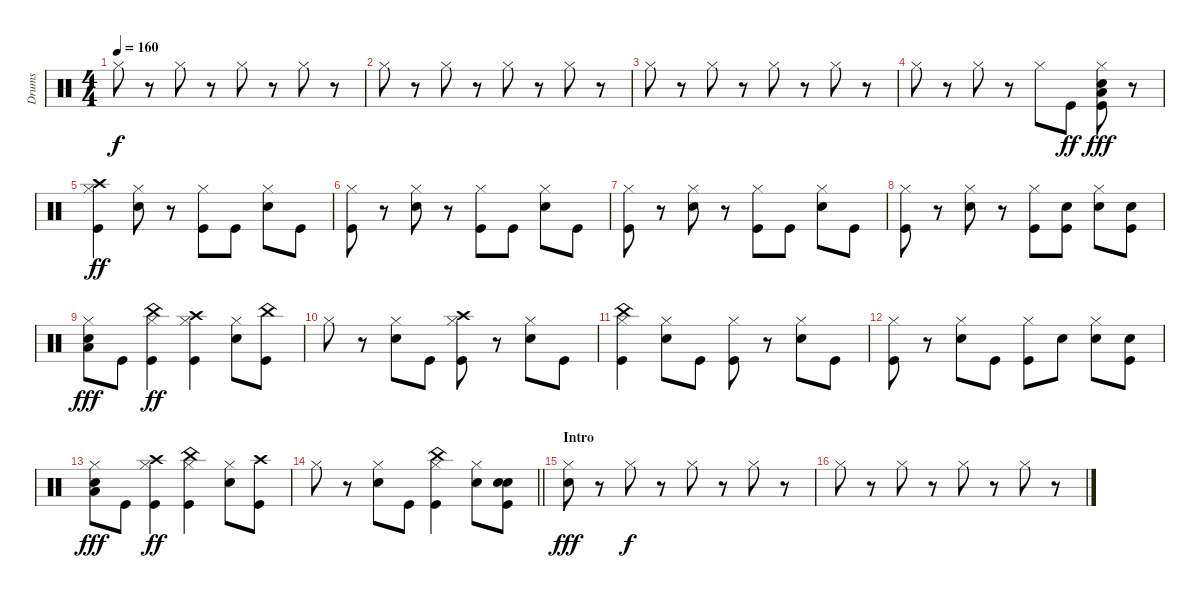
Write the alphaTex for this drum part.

\track ("Drums" "Drums") {instrument percussion}
\staff {score}
\articulation defaults
\ts (4 4)
\tempo 160
\clef neutral
\ks c "Hi-Hat (closed)".8{dy f}
r.8 "Hi-Hat (closed)".8 r.8 "Hi-Hat (closed)".8 r.8 "Hi-Hat (closed)".8 r.8 |
"Hi-Hat (closed)".8 r.8 "Hi-Hat (closed)".8 r.8 "Hi-Hat (closed)".8 r.8 "Hi-Hat (closed)".8 r.8 |
"Hi-Hat (closed)".8 r.8 "Hi-Hat (closed)".8 r.8 "Hi-Hat (closed)".8 r.8 "Hi-Hat (closed)".8 r.8 |
"Hi-Hat (closed)".8 r.8 "Hi-Hat (closed)".8 r.8 "Hi-Hat (closed)".8 "Kick (hit)".8{dy ff} ("Kick (hit)" "Snare (hit) 2" "Low Floor Tom (hit)" "Hi-Hat (closed)").8{dy fff} r.8 |
("Crash high (hit)" "Hi-Hat (closed)" "Kick (hit)").4{dy ff} ("Hi-Hat (closed)" "Snare (hit) 2").8 r.8 ("Hi-Hat (closed)" "Kick (hit)").8 "Kick (hit)".8 ("Hi-Hat (closed)" "Snare (hit) 2").8 "Kick (hit)".8 |
("Hi-Hat (closed)" "Kick (hit)").8 r.8 ("Hi-Hat (closed)" "Snare (hit) 2").8 r.8 ("Hi-Hat (closed)" "Kick (hit)").8 "Kick (hit)".8 ("Hi-Hat (closed)" "Snare (hit) 2").8 "Kick (hit)".8 |
("Hi-Hat (closed)" "Kick (hit)").8 r.8 ("Hi-Hat (closed)" "Snare (hit) 2").8 r.8 ("Hi-Hat (closed)" "Kick (hit)").8 "Kick (hit)".8 ("Hi-Hat (closed)" "Snare (hit) 2").8 "Kick (hit)".8 |
("Hi-Hat (closed)" "Kick (hit)").8 r.8 ("Hi-Hat (closed)" "Snare (hit) 2").8 r.8 ("Hi-Hat (closed)" "Kick (hit)").8 ("Snare (hit) 2" "Kick (hit)").8 ("Snare (hit) 2" "Hi-Hat (closed)").8 ("Snare (hit) 2" "Kick (hit)").8 |
("Snare (hit) 2" "Hi-Hat (closed)" "Low Floor Tom (hit)").8{dy fff} "Kick (hit)".8 ("Kick (hit)" "China (hit)" "Hi-Hat (closed)").4{dy ff} ("Kick (hit)" "Crash high (hit)" "Hi-Hat (closed)").4 ("Hi-Hat (closed)" "Snare (hit) 2").8 ("China (hit)" "Kick (hit)").8 |
"Hi-Hat (closed)".8 r.8 ("Hi-Hat (closed)" "Snare (hit) 2").8 "Kick (hit)".8 ("Kick (hit)" "Crash high (hit)" "Hi-Hat (closed)").8 r.8 ("Hi-Hat (closed)" "Snare (hit) 2").8 "Kick (hit)".8 |
("Kick (hit)" "China (hit)" "Hi-Hat (closed)").4 ("Hi-Hat (closed)" "Snare (hit) 2").8 "Kick (hit)".8 ("Hi-Hat (closed)" "Kick (hit)").8 r.8 ("Hi-Hat (closed)" "Snare (hit) 2").8 "Kick (hit)".8 |
("Hi-Hat (closed)" "Kick (hit)").8 r.8 ("Hi-Hat (closed)" "Snare (hit) 2").8 "Kick (hit)".8 ("Kick (hit)" "Hi-Hat (closed)").8 "Snare (hit) 2".8 ("Hi-Hat (closed)" "Snare (hit) 2").8 ("Snare (hit) 2" "Kick (hit)").8 |
("Snare (hit) 2" "Hi-Hat (closed)" "Low Floor Tom (hit)").8{dy fff} "Kick (hit)".8 ("Kick (hit)" "Crash high (hit)" "Hi-Hat (closed)").4{dy ff} ("Kick (hit)" "China (hit)" "Hi-Hat (closed)").4 ("Hi-Hat (closed)" "Snare (hit) 2").8 ("Kick (hit)" "Crash high (hit)").8 |
\barLineRight lightlight "Hi-Hat (closed)".8
r.8 ("Hi-Hat (closed)" "Snare (hit) 2").8 "Kick (hit)".8 ("Kick (hit)" "China (hit)" "Hi-Hat (closed)").4 ("Hi-Hat (closed)" "Snare (hit) 2").8 ("Snare (hit) 2" "Snare (hit) 2" "Kick (hit)").8 |
\section ("" "Intro")
("Snare (hit) 2" "Hi-Hat (closed)").8{dy fff} r.8 "Hi-Hat (closed)".8{dy f} r.8 "Hi-Hat (closed)".8 r.8 "Hi-Hat (closed)".8 r.8 |
"Hi-Hat (closed)".8 r.8 "Hi-Hat (closed)".8 r.8 "Hi-Hat (closed)".8 r.8 "Hi-Hat (closed)".8 r.8
